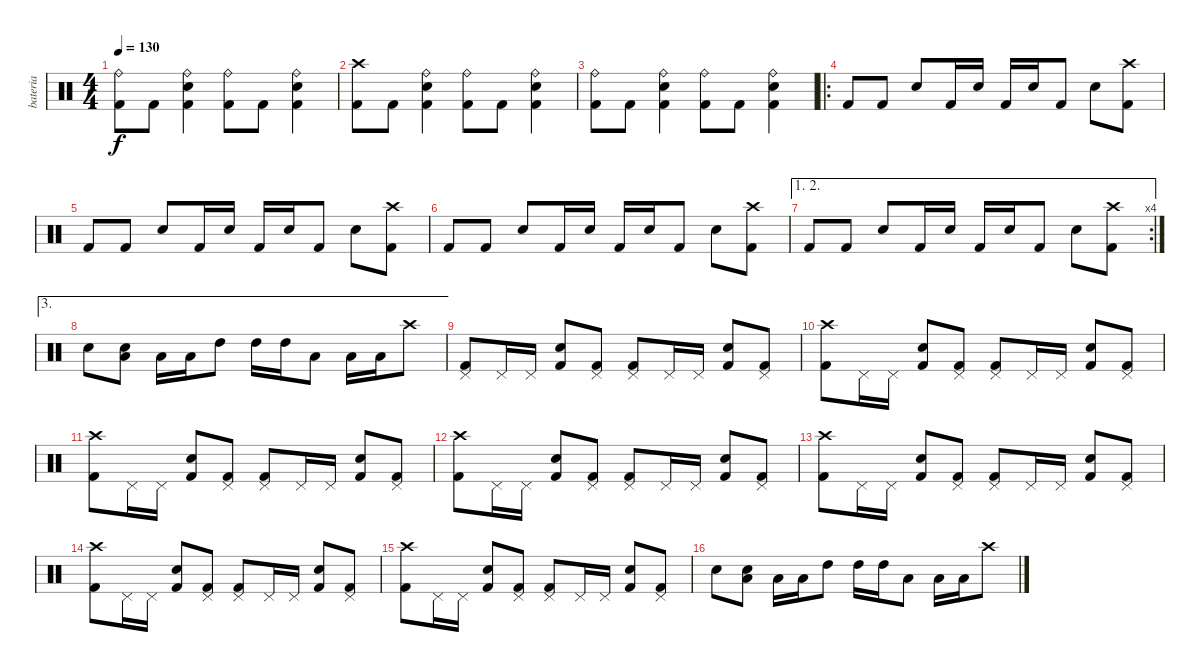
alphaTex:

\track ("bateria" "bateria") {instrument percussion}
\staff {score}
\articulation defaults
\ts (4 4)
\tempo 130
\clef neutral
\ks c
("Ride (bell)" "Kick (hit) 2").8{dy f} "Kick (hit) 2".8 ("Ride (bell)" "Snare (hit) 2" "Kick (hit) 2").4 ("Ride (bell)" "Kick (hit) 2").8 "Kick (hit) 2".8 ("Ride (bell)" "Snare (hit) 2" "Kick (hit) 2").4 |
("Crash high (hit)" "Kick (hit) 2").8 "Kick (hit) 2".8 ("Ride (bell)" "Snare (hit) 2" "Kick (hit) 2").4 ("Ride (bell)" "Kick (hit) 2").8 "Kick (hit) 2".8 ("Ride (bell)" "Snare (hit) 2" "Kick (hit) 2").4 |
("Ride (bell)" "Kick (hit) 2").8 "Kick (hit) 2".8 ("Ride (bell)" "Snare (hit) 2" "Kick (hit) 2").4 ("Ride (bell)" "Kick (hit) 2").8 "Kick (hit) 2".8 ("Ride (bell)" "Snare (hit) 2" "Kick (hit) 2").4 |
\ro "Kick (hit) 2".8 "Kick (hit) 2".8 "Snare (hit) 2".8 "Kick (hit) 2".16 "Snare (hit) 2".16 "Kick (hit) 2".16 "Snare (hit) 2".16 "Kick (hit) 2".8 "Snare (hit) 2".8
("Crash high (hit)" "Kick (hit) 2").8 |
"Kick (hit) 2".8 "Kick (hit) 2".8 "Snare (hit) 2".8 "Kick (hit) 2".16 "Snare (hit) 2".16 "Kick (hit) 2".16 "Snare (hit) 2".16 "Kick (hit) 2".8 "Snare (hit) 2".8 ("Crash high (hit)" "Kick (hit) 2").8 |
"Kick (hit) 2".8 "Kick (hit) 2".8 "Snare (hit) 2".8 "Kick (hit) 2".16 "Snare (hit) 2".16 "Kick (hit) 2".16 "Snare (hit) 2".16 "Kick (hit) 2".8 "Snare (hit) 2".8 ("Crash high (hit)" "Kick (hit) 2").8 |
\ae (1 2)
\rc 4 "Kick (hit) 2".8 "Kick (hit) 2".8 "Snare (hit) 2".8 "Kick (hit) 2".16 "Snare (hit) 2".16 "Kick (hit) 2".16 "Snare (hit) 2".16 "Kick (hit) 2".8 "Snare (hit) 2".8
("Crash high (hit)" "Kick (hit) 2").8 |
\ae 3 "Snare (hit) 2".8
("Low Tom (hit)" "Snare (hit) 2").8 "Low Tom (hit)".16 "Low Tom (hit)".16 "High Tom (hit)".8 "High Tom (hit)".16 "High Tom (hit)".16 "Low Tom (hit)".8 "Low Tom (hit)".16 "Low Tom (hit)".16 "Crash high (hit)".8 |
("Pedal Hi-Hat (hit)" "Kick (hit) 2").8 "Pedal Hi-Hat (hit)".16 "Pedal Hi-Hat (hit)".16 ("Snare (hit) 2" "Kick (hit) 2").8 ("Pedal Hi-Hat (hit)" "Kick (hit) 2").8 ("Pedal Hi-Hat (hit)" "Kick (hit) 2").8 "Pedal Hi-Hat (hit)".16 "Pedal Hi-Hat (hit)".16 ("Snare (hit) 2" "Kick (hit) 2").8 ("Pedal Hi-Hat (hit)" "Kick (hit) 2").8 |
("Crash high (hit)" "Kick (hit) 2").8 "Pedal Hi-Hat (hit)".16 "Pedal Hi-Hat (hit)".16 ("Snare (hit) 2" "Kick (hit) 2").8 ("Pedal Hi-Hat (hit)" "Kick (hit) 2").8 ("Pedal Hi-Hat (hit)" "Kick (hit) 2").8 "Pedal Hi-Hat (hit)".16 "Pedal Hi-Hat (hit)".16 ("Snare (hit) 2" "Kick (hit) 2").8 ("Pedal Hi-Hat (hit)" "Kick (hit) 2").8 |
("Crash high (hit)" "Kick (hit) 2").8 "Pedal Hi-Hat (hit)".16 "Pedal Hi-Hat (hit)".16 ("Snare (hit) 2" "Kick (hit) 2").8 ("Pedal Hi-Hat (hit)" "Kick (hit) 2").8 ("Pedal Hi-Hat (hit)" "Kick (hit) 2").8 "Pedal Hi-Hat (hit)".16 "Pedal Hi-Hat (hit)".16 ("Snare (hit) 2" "Kick (hit) 2").8 ("Pedal Hi-Hat (hit)" "Kick (hit) 2").8 |
("Crash high (hit)" "Kick (hit) 2").8 "Pedal Hi-Hat (hit)".16 "Pedal Hi-Hat (hit)".16 ("Snare (hit) 2" "Kick (hit) 2").8 ("Pedal Hi-Hat (hit)" "Kick (hit) 2").8 ("Pedal Hi-Hat (hit)" "Kick (hit) 2").8 "Pedal Hi-Hat (hit)".16 "Pedal Hi-Hat (hit)".16 ("Snare (hit) 2" "Kick (hit) 2").8 ("Pedal Hi-Hat (hit)" "Kick (hit) 2").8 |
("Crash high (hit)" "Kick (hit) 2").8 "Pedal Hi-Hat (hit)".16 "Pedal Hi-Hat (hit)".16 ("Snare (hit) 2" "Kick (hit) 2").8 ("Pedal Hi-Hat (hit)" "Kick (hit) 2").8 ("Pedal Hi-Hat (hit)" "Kick (hit) 2").8 "Pedal Hi-Hat (hit)".16 "Pedal Hi-Hat (hit)".16 ("Snare (hit) 2" "Kick (hit) 2").8 ("Pedal Hi-Hat (hit)" "Kick (hit) 2").8 |
("Crash high (hit)" "Kick (hit) 2").8 "Pedal Hi-Hat (hit)".16 "Pedal Hi-Hat (hit)".16 ("Snare (hit) 2" "Kick (hit) 2").8 ("Pedal Hi-Hat (hit)" "Kick (hit) 2").8 ("Pedal Hi-Hat (hit)" "Kick (hit) 2").8 "Pedal Hi-Hat (hit)".16 "Pedal Hi-Hat (hit)".16 ("Snare (hit) 2" "Kick (hit) 2").8 ("Pedal Hi-Hat (hit)" "Kick (hit) 2").8 |
("Crash high (hit)" "Kick (hit) 2").8 "Pedal Hi-Hat (hit)".16 "Pedal Hi-Hat (hit)".16 ("Snare (hit) 2" "Kick (hit) 2").8 ("Pedal Hi-Hat (hit)" "Kick (hit) 2").8 ("Pedal Hi-Hat (hit)" "Kick (hit) 2").8 "Pedal Hi-Hat (hit)".16 "Pedal Hi-Hat (hit)".16 ("Snare (hit) 2" "Kick (hit) 2").8 ("Pedal Hi-Hat (hit)" "Kick (hit) 2").8 |
"Snare (hit) 2".8 ("Low Tom (hit)" "Snare (hit) 2").8 "Low Tom (hit)".16 "Low Tom (hit)".16 "High Tom (hit)".8 "High Tom (hit)".16 "High Tom (hit)".16 "Low Tom (hit)".8 "Low Tom (hit)".16 "Low Tom (hit)".16 "Crash high (hit)".8
